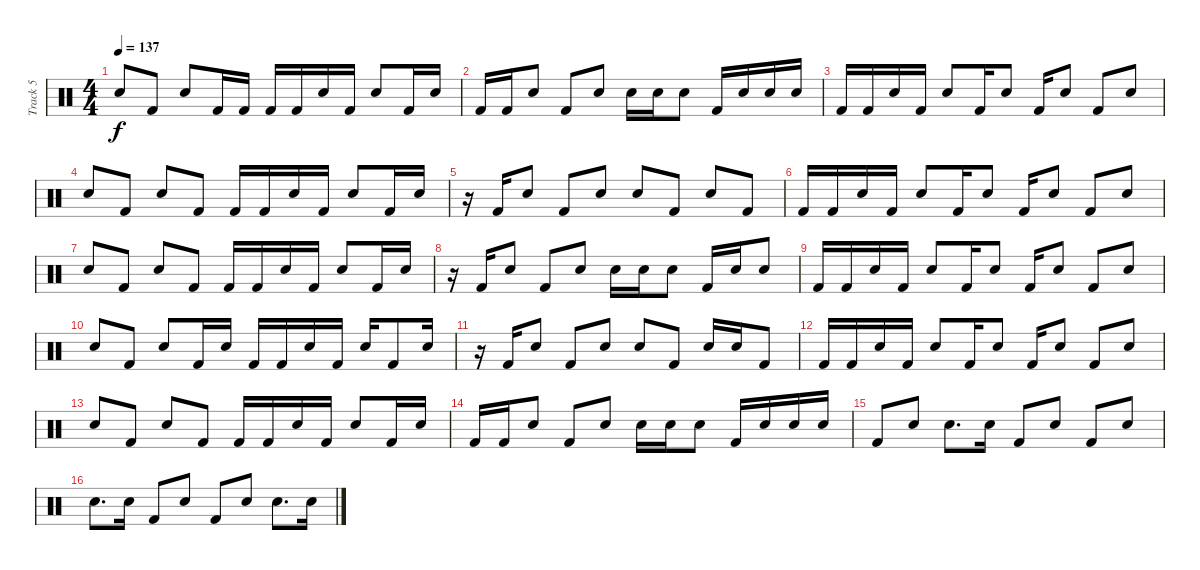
\track ("Track 5" "Track 5") {instrument percussion}
\staff {score}
\articulation defaults
\ts (4 4)
\tempo 137
\clef neutral
\ks c "Snare (hit) 2".8{dy f} "Kick (hit) 2".8 "Snare (hit) 2".8 "Kick (hit) 2".16 "Kick (hit) 2".16 "Kick (hit) 2".16 "Kick (hit) 2".16 "Snare (hit) 2".16 "Kick (hit) 2".16 "Snare (hit) 2".8 "Kick (hit) 2".16 "Snare (hit) 2".16
|
"Kick (hit) 2".16 "Kick (hit) 2".16 "Snare (hit) 2".8 "Kick (hit) 2".8 "Snare (hit) 2".8 "Snare (hit) 2".16 "Snare (hit) 2".16 "Snare (hit) 2".8 "Kick (hit) 2".16 "Snare (hit) 2".16 "Snare (hit) 2".16 "Snare (hit) 2".16 |
"Kick (hit) 2".16 "Kick (hit) 2".16 "Snare (hit) 2".16 "Kick (hit) 2".16 "Snare (hit) 2".8 "Kick (hit) 2".16 "Snare (hit) 2".8 "Kick (hit) 2".16 "Snare (hit) 2".8 "Kick (hit) 2".8 "Snare (hit) 2".8 |
"Snare (hit) 2".8 "Kick (hit) 2".8 "Snare (hit) 2".8 "Kick (hit) 2".8 "Kick (hit) 2".16 "Kick (hit) 2".16 "Snare (hit) 2".16 "Kick (hit) 2".16 "Snare (hit) 2".8 "Kick (hit) 2".16 "Snare (hit) 2".16 |
r.16 "Kick (hit) 2".16 "Snare (hit) 2".8 "Kick (hit) 2".8 "Snare (hit) 2".8 "Snare (hit) 2".8 "Kick (hit) 2".8 "Snare (hit) 2".8 "Kick (hit) 2".8 |
"Kick (hit) 2".16 "Kick (hit) 2".16 "Snare (hit) 2".16 "Kick (hit) 2".16 "Snare (hit) 2".8 "Kick (hit) 2".16 "Snare (hit) 2".8 "Kick (hit) 2".16 "Snare (hit) 2".8 "Kick (hit) 2".8 "Snare (hit) 2".8 |
"Snare (hit) 2".8 "Kick (hit) 2".8 "Snare (hit) 2".8 "Kick (hit) 2".8 "Kick (hit) 2".16 "Kick (hit) 2".16 "Snare (hit) 2".16 "Kick (hit) 2".16 "Snare (hit) 2".8 "Kick (hit) 2".16 "Snare (hit) 2".16 |
r.16 "Kick (hit) 2".16 "Snare (hit) 2".8 "Kick (hit) 2".8 "Snare (hit) 2".8 "Snare (hit) 2".16 "Snare (hit) 2".16 "Snare (hit) 2".8 "Kick (hit) 2".16 "Snare (hit) 2".16 "Snare (hit) 2".8 |
"Kick (hit) 2".16 "Kick (hit) 2".16 "Snare (hit) 2".16 "Kick (hit) 2".16 "Snare (hit) 2".8 "Kick (hit) 2".16 "Snare (hit) 2".8 "Kick (hit) 2".16 "Snare (hit) 2".8 "Kick (hit) 2".8 "Snare (hit) 2".8 |
"Snare (hit) 2".8 "Kick (hit) 2".8 "Snare (hit) 2".8 "Kick (hit) 2".16 "Snare (hit) 2".16 "Kick (hit) 2".16 "Kick (hit) 2".16 "Snare (hit) 2".16 "Kick (hit) 2".16 "Snare (hit) 2".16 "Kick (hit) 2".8 "Snare (hit) 2".16 |
r.16 "Kick (hit) 2".16 "Snare (hit) 2".8 "Kick (hit) 2".8 "Snare (hit) 2".8 "Snare (hit) 2".8 "Kick (hit) 2".8 "Snare (hit) 2".16 "Snare (hit) 2".16 "Kick (hit) 2".8 |
"Kick (hit) 2".16 "Kick (hit) 2".16 "Snare (hit) 2".16 "Kick (hit) 2".16 "Snare (hit) 2".8 "Kick (hit) 2".16 "Snare (hit) 2".8 "Kick (hit) 2".16 "Snare (hit) 2".8 "Kick (hit) 2".8 "Snare (hit) 2".8 |
"Snare (hit) 2".8 "Kick (hit) 2".8 "Snare (hit) 2".8 "Kick (hit) 2".8 "Kick (hit) 2".16 "Kick (hit) 2".16 "Snare (hit) 2".16 "Kick (hit) 2".16 "Snare (hit) 2".8 "Kick (hit) 2".16 "Snare (hit) 2".16 |
"Kick (hit) 2".16 "Kick (hit) 2".16 "Snare (hit) 2".8 "Kick (hit) 2".8 "Snare (hit) 2".8 "Snare (hit) 2".16 "Snare (hit) 2".16 "Snare (hit) 2".8 "Kick (hit) 2".16 "Snare (hit) 2".16 "Snare (hit) 2".16 "Snare (hit) 2".16 |
"Kick (hit) 2".8 "Snare (hit) 2".8 "Snare (hit) 2".8{d} "Snare (hit) 2".16 "Kick (hit) 2".8 "Snare (hit) 2".8 "Kick (hit) 2".8 "Snare (hit) 2".8 |
"Snare (hit) 2".8{d} "Snare (hit) 2".16 "Kick (hit) 2".8 "Snare (hit) 2".8 "Kick (hit) 2".8 "Snare (hit) 2".8 "Snare (hit) 2".8{d} "Snare (hit) 2".16
